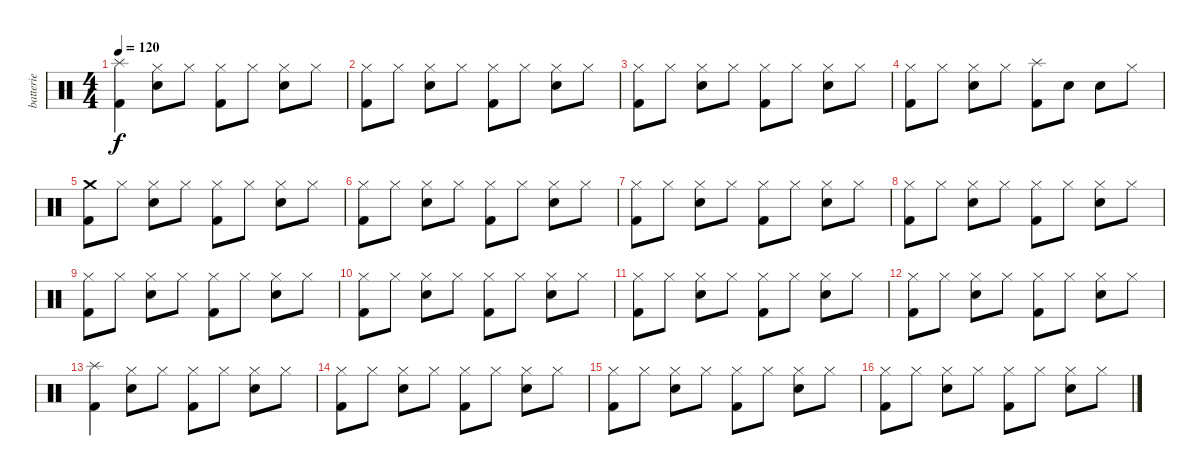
\track ("batterie" "batterie") {instrument percussion}
\staff {score}
\articulation defaults
\ts (4 4)
\tempo 120
\clef neutral
\ks c
("Kick (hit) 2" "Splash (hit)").4{dy f} ("Snare (hit) 2" "Hi-Hat (closed)").8 "Hi-Hat (closed)".8 ("Kick (hit) 2" "Hi-Hat (closed)").8 "Hi-Hat (closed)".8 ("Snare (hit) 2" "Hi-Hat (closed)").8 "Hi-Hat (closed)".8 |
("Kick (hit) 2" "Hi-Hat (closed)").8 "Hi-Hat (closed)".8 ("Snare (hit) 2" "Hi-Hat (closed)").8 "Hi-Hat (closed)".8 ("Kick (hit) 2" "Hi-Hat (closed)").8 "Hi-Hat (closed)".8 ("Snare (hit) 2" "Hi-Hat (closed)").8 "Hi-Hat (closed)".8 |
("Kick (hit) 2" "Hi-Hat (closed)").8 "Hi-Hat (closed)".8 ("Snare (hit) 2" "Hi-Hat (closed)").8 "Hi-Hat (closed)".8 ("Kick (hit) 2" "Hi-Hat (closed)").8 "Hi-Hat (closed)".8 ("Snare (hit) 2" "Hi-Hat (closed)").8 "Hi-Hat (closed)".8 |
("Kick (hit) 2" "Hi-Hat (closed)").8 "Hi-Hat (closed)".8 ("Snare (hit) 2" "Hi-Hat (closed)").8 "Hi-Hat (closed)".8 ("Kick (hit) 2" "Splash (hit)").8 "Snare (hit) 2".8 "Snare (hit) 2".8 "Hi-Hat (closed)".8 |
("Kick (hit) 2" "Crash medium (hit)").8 "Hi-Hat (closed)".8 ("Snare (hit) 2" "Hi-Hat (closed)").8 "Hi-Hat (closed)".8 ("Kick (hit) 2" "Hi-Hat (closed)").8 "Hi-Hat (closed)".8 ("Snare (hit) 2" "Hi-Hat (closed)").8 "Hi-Hat (closed)".8 |
("Kick (hit) 2" "Hi-Hat (closed)").8 "Hi-Hat (closed)".8 ("Snare (hit) 2" "Hi-Hat (closed)").8 "Hi-Hat (closed)".8 ("Kick (hit) 2" "Hi-Hat (closed)").8 "Hi-Hat (closed)".8 ("Snare (hit) 2" "Hi-Hat (closed)").8 "Hi-Hat (closed)".8 |
("Kick (hit) 2" "Hi-Hat (closed)").8 "Hi-Hat (closed)".8 ("Snare (hit) 2" "Hi-Hat (closed)").8 "Hi-Hat (closed)".8 ("Kick (hit) 2" "Hi-Hat (closed)").8 "Hi-Hat (closed)".8 ("Snare (hit) 2" "Hi-Hat (closed)").8 "Hi-Hat (closed)".8 |
("Kick (hit) 2" "Hi-Hat (closed)").8 "Hi-Hat (closed)".8 ("Snare (hit) 2" "Hi-Hat (closed)").8 "Hi-Hat (closed)".8 ("Kick (hit) 2" "Hi-Hat (closed)").8 "Hi-Hat (closed)".8 ("Snare (hit) 2" "Hi-Hat (closed)").8 "Hi-Hat (closed)".8 |
("Kick (hit) 2" "Hi-Hat (closed)").8 "Hi-Hat (closed)".8 ("Snare (hit) 2" "Hi-Hat (closed)").8 "Hi-Hat (closed)".8 ("Kick (hit) 2" "Hi-Hat (closed)").8 "Hi-Hat (closed)".8 ("Snare (hit) 2" "Hi-Hat (closed)").8 "Hi-Hat (closed)".8 |
("Kick (hit) 2" "Hi-Hat (closed)").8 "Hi-Hat (closed)".8 ("Snare (hit) 2" "Hi-Hat (closed)").8 "Hi-Hat (closed)".8 ("Kick (hit) 2" "Hi-Hat (closed)").8 "Hi-Hat (closed)".8 ("Snare (hit) 2" "Hi-Hat (closed)").8 "Hi-Hat (closed)".8 |
("Kick (hit) 2" "Hi-Hat (closed)").8 "Hi-Hat (closed)".8 ("Snare (hit) 2" "Hi-Hat (closed)").8 "Hi-Hat (closed)".8 ("Kick (hit) 2" "Hi-Hat (closed)").8 "Hi-Hat (closed)".8 ("Snare (hit) 2" "Hi-Hat (closed)").8 "Hi-Hat (closed)".8 |
("Kick (hit) 2" "Hi-Hat (closed)").8 "Hi-Hat (closed)".8 ("Snare (hit) 2" "Hi-Hat (closed)").8 "Hi-Hat (closed)".8 ("Kick (hit) 2" "Hi-Hat (closed)").8 "Hi-Hat (closed)".8 ("Snare (hit) 2" "Hi-Hat (closed)").8 "Hi-Hat (closed)".8 |
("Kick (hit) 2" "Splash (hit)").4 ("Snare (hit) 2" "Hi-Hat (closed)").8 "Hi-Hat (closed)".8 ("Kick (hit) 2" "Hi-Hat (closed)").8 "Hi-Hat (closed)".8 ("Snare (hit) 2" "Hi-Hat (closed)").8 "Hi-Hat (closed)".8 |
("Kick (hit) 2" "Hi-Hat (closed)").8 "Hi-Hat (closed)".8 ("Snare (hit) 2" "Hi-Hat (closed)").8 "Hi-Hat (closed)".8 ("Kick (hit) 2" "Hi-Hat (closed)").8 "Hi-Hat (closed)".8 ("Snare (hit) 2" "Hi-Hat (closed)").8 "Hi-Hat (closed)".8 |
("Kick (hit) 2" "Hi-Hat (closed)").8 "Hi-Hat (closed)".8 ("Snare (hit) 2" "Hi-Hat (closed)").8 "Hi-Hat (closed)".8 ("Kick (hit) 2" "Hi-Hat (closed)").8 "Hi-Hat (closed)".8 ("Snare (hit) 2" "Hi-Hat (closed)").8 "Hi-Hat (closed)".8 |
("Kick (hit) 2" "Hi-Hat (closed)").8 "Hi-Hat (closed)".8 ("Snare (hit) 2" "Hi-Hat (closed)").8 "Hi-Hat (closed)".8 ("Kick (hit) 2" "Hi-Hat (closed)").8 "Hi-Hat (closed)".8 ("Snare (hit) 2" "Hi-Hat (closed)").8 "Hi-Hat (closed)".8
